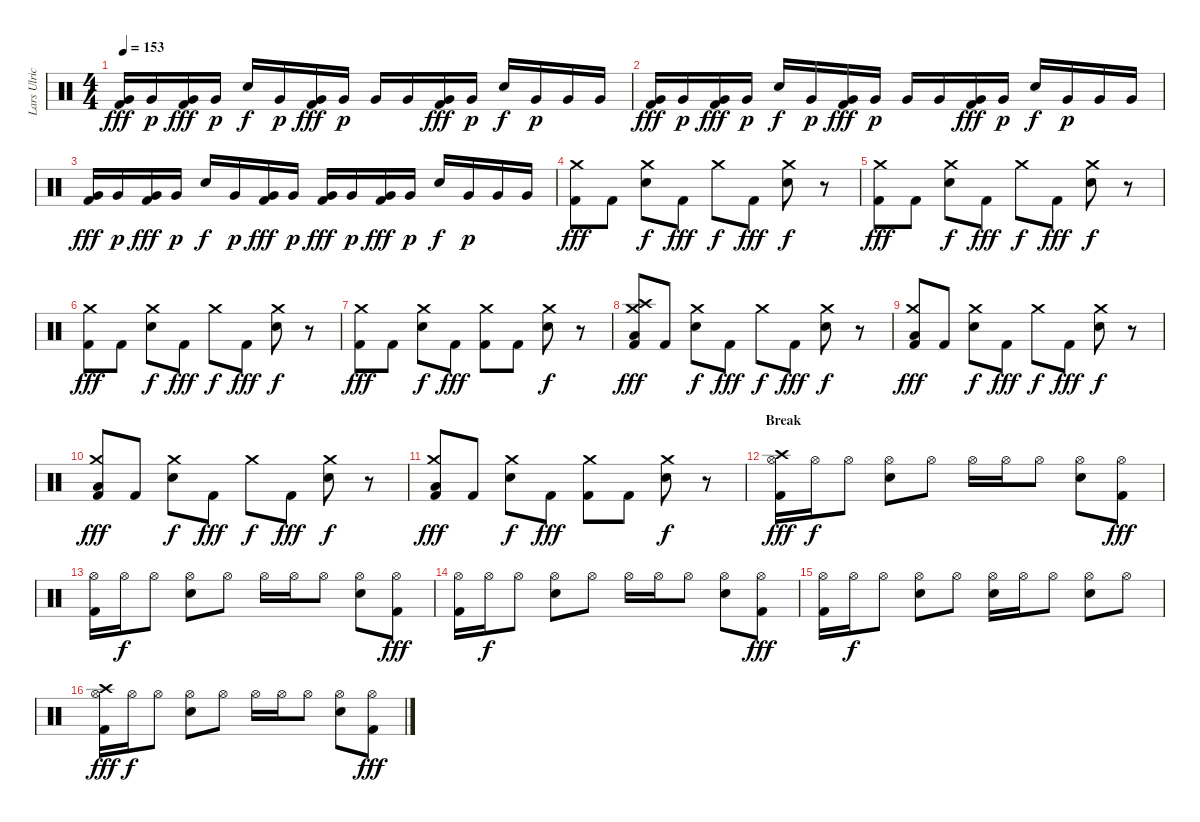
\track ("Lars Ulrich (Drums)" "Lars Ulric") {instrument percussion}
\staff {score}
\articulation defaults
\ts (4 4)
\tempo 153
\clef neutral
\ks c
("Very Low Tom (hit)" "Kick (hit) 2").16{dy fff} "Very Low Tom (hit)".16{dy p} ("Very Low Tom (hit)" "Kick (hit) 2").16{dy fff} "Very Low Tom (hit)".16{dy p} "Electric Snare (hit)".16{dy f} "Very Low Tom (hit)".16{dy p} ("Very Low Tom (hit)" "Kick (hit) 2").16{dy fff} "Very Low Tom (hit)".16{dy p} "Very Low Tom (hit)".16 "Very Low Tom (hit)".16 ("Very Low Tom (hit)" "Kick (hit) 2").16{dy fff} "Very Low Tom (hit)".16{dy p} "Electric Snare (hit)".16{dy f} "Very Low Tom (hit)".16{dy p} "Very Low Tom (hit)".16 "Very Low Tom (hit)".16 |
("Very Low Tom (hit)" "Kick (hit) 2").16{dy fff} "Very Low Tom (hit)".16{dy p} ("Very Low Tom (hit)" "Kick (hit) 2").16{dy fff} "Very Low Tom (hit)".16{dy p} "Electric Snare (hit)".16{dy f} "Very Low Tom (hit)".16{dy p} ("Very Low Tom (hit)" "Kick (hit) 2").16{dy fff} "Very Low Tom (hit)".16{dy p} "Very Low Tom (hit)".16 "Very Low Tom (hit)".16 ("Very Low Tom (hit)" "Kick (hit) 2").16{dy fff} "Very Low Tom (hit)".16{dy p} "Electric Snare (hit)".16{dy f} "Very Low Tom (hit)".16{dy p} "Very Low Tom (hit)".16 "Very Low Tom (hit)".16 |
("Very Low Tom (hit)" "Kick (hit) 2").16{dy fff} "Very Low Tom (hit)".16{dy p} ("Very Low Tom (hit)" "Kick (hit) 2").16{dy fff} "Very Low Tom (hit)".16{dy p} "Electric Snare (hit)".16{dy f} "Very Low Tom (hit)".16{dy p} ("Very Low Tom (hit)" "Kick (hit) 2").16{dy fff} "Very Low Tom (hit)".16{dy p} ("Very Low Tom (hit)" "Kick (hit) 2").16{dy fff} "Very Low Tom (hit)".16{dy p} ("Very Low Tom (hit)" "Kick (hit) 2").16{dy fff} "Very Low Tom (hit)".16{dy p} "Electric Snare (hit)".16{dy f} "Very Low Tom (hit)".16{dy p} "Very Low Tom (hit)".16 "Very Low Tom (hit)".16 |
("Crash medium (hit)" "Kick (hit) 2").8{dy fff} "Kick (hit) 2".8 ("Crash medium (hit)" "Electric Snare (hit)").8{dy f} "Kick (hit) 2".8{dy fff} "Crash medium (hit)".8{dy f} "Kick (hit) 2".8{dy fff} ("Crash medium (hit)" "Electric Snare (hit)").8{dy f} r.8 |
("Crash medium (hit)" "Kick (hit) 2").8{dy fff} "Kick (hit) 2".8 ("Crash medium (hit)" "Electric Snare (hit)").8{dy f} "Kick (hit) 2".8{dy fff} "Crash medium (hit)".8{dy f} "Kick (hit) 2".8{dy fff} ("Crash medium (hit)" "Electric Snare (hit)").8{dy f} r.8 |
("Crash medium (hit)" "Kick (hit) 2").8{dy fff} "Kick (hit) 2".8 ("Crash medium (hit)" "Electric Snare (hit)").8{dy f} "Kick (hit) 2".8{dy fff} "Crash medium (hit)".8{dy f} "Kick (hit) 2".8{dy fff} ("Crash medium (hit)" "Electric Snare (hit)").8{dy f} r.8 |
("Crash medium (hit)" "Kick (hit) 2").8{dy fff} "Kick (hit) 2".8 ("Crash medium (hit)" "Electric Snare (hit)").8{dy f} "Kick (hit) 2".8{dy fff} ("Crash medium (hit)" "Kick (hit) 2").8 "Kick (hit) 2".8 ("Crash medium (hit)" "Electric Snare (hit)").8{dy f} r.8 |
("Crash medium (hit)" "Crash high (hit)" "Low Floor Tom (hit)" "Kick (hit) 2").8{dy fff} "Kick (hit) 2".8 ("Crash medium (hit)" "Electric Snare (hit)").8{dy f} "Kick (hit) 2".8{dy fff} "Crash medium (hit)".8{dy f} "Kick (hit) 2".8{dy fff} ("Crash medium (hit)" "Electric Snare (hit)").8{dy f} r.8 |
("Crash medium (hit)" "Low Floor Tom (hit)" "Kick (hit) 2").8{dy fff} "Kick (hit) 2".8 ("Crash medium (hit)" "Electric Snare (hit)").8{dy f} "Kick (hit) 2".8{dy fff} "Crash medium (hit)".8{dy f} "Kick (hit) 2".8{dy fff} ("Crash medium (hit)" "Electric Snare (hit)").8{dy f} r.8 |
("Crash medium (hit)" "Low Floor Tom (hit)" "Kick (hit) 2").8{dy fff} "Kick (hit) 2".8 ("Crash medium (hit)" "Electric Snare (hit)").8{dy f} "Kick (hit) 2".8{dy fff} "Crash medium (hit)".8{dy f} "Kick (hit) 2".8{dy fff} ("Crash medium (hit)" "Electric Snare (hit)").8{dy f} r.8 |
("Crash medium (hit)" "Low Floor Tom (hit)" "Kick (hit) 2").8{dy fff} "Kick (hit) 2".8 ("Crash medium (hit)" "Electric Snare (hit)").8{dy f} "Kick (hit) 2".8{dy fff} ("Crash medium (hit)" "Kick (hit) 2").8 "Kick (hit) 2".8 ("Crash medium (hit)" "Electric Snare (hit)").8{dy f} r.8 |
\section ("" "Break")
("Crash high (hit)" "Hi-Hat (open)" "Kick (hit) 2").16{dy fff} "Hi-Hat (open)".16{dy f} "Hi-Hat (open)".8 ("Hi-Hat (open)" "Electric Snare (hit)").8 "Hi-Hat (open)".8 "Hi-Hat (open)".16 "Hi-Hat (open)".16 "Hi-Hat (open)".8 ("Hi-Hat (open)" "Electric Snare (hit)").8 ("Hi-Hat (open)" "Kick (hit) 2").8{dy fff} |
("Hi-Hat (open)" "Kick (hit) 2").16 "Hi-Hat (open)".16{dy f} "Hi-Hat (open)".8 ("Hi-Hat (open)" "Electric Snare (hit)").8 "Hi-Hat (open)".8 "Hi-Hat (open)".16 "Hi-Hat (open)".16 "Hi-Hat (open)".8 ("Hi-Hat (open)" "Electric Snare (hit)").8 ("Hi-Hat (open)" "Kick (hit) 2").8{dy fff} |
("Hi-Hat (open)" "Kick (hit) 2").16 "Hi-Hat (open)".16{dy f} "Hi-Hat (open)".8 ("Hi-Hat (open)" "Electric Snare (hit)").8 "Hi-Hat (open)".8 "Hi-Hat (open)".16 "Hi-Hat (open)".16 "Hi-Hat (open)".8 ("Hi-Hat (open)" "Electric Snare (hit)").8 ("Hi-Hat (open)" "Kick (hit) 2").8{dy fff} |
("Hi-Hat (open)" "Kick (hit) 2").16 "Hi-Hat (open)".16{dy f} "Hi-Hat (open)".8 ("Hi-Hat (open)" "Electric Snare (hit)").8 "Hi-Hat (open)".8 ("Hi-Hat (open)" "Electric Snare (hit)").16 "Hi-Hat (open)".16 "Hi-Hat (open)".8 ("Hi-Hat (open)" "Electric Snare (hit)").8 "Hi-Hat (open)".8 |
("Crash high (hit)" "Hi-Hat (open)" "Kick (hit) 2").16{dy fff} "Hi-Hat (open)".16{dy f} "Hi-Hat (open)".8 ("Hi-Hat (open)" "Electric Snare (hit)").8 "Hi-Hat (open)".8 "Hi-Hat (open)".16 "Hi-Hat (open)".16 "Hi-Hat (open)".8 ("Hi-Hat (open)" "Electric Snare (hit)").8 ("Hi-Hat (open)" "Kick (hit) 2").8{dy fff}
